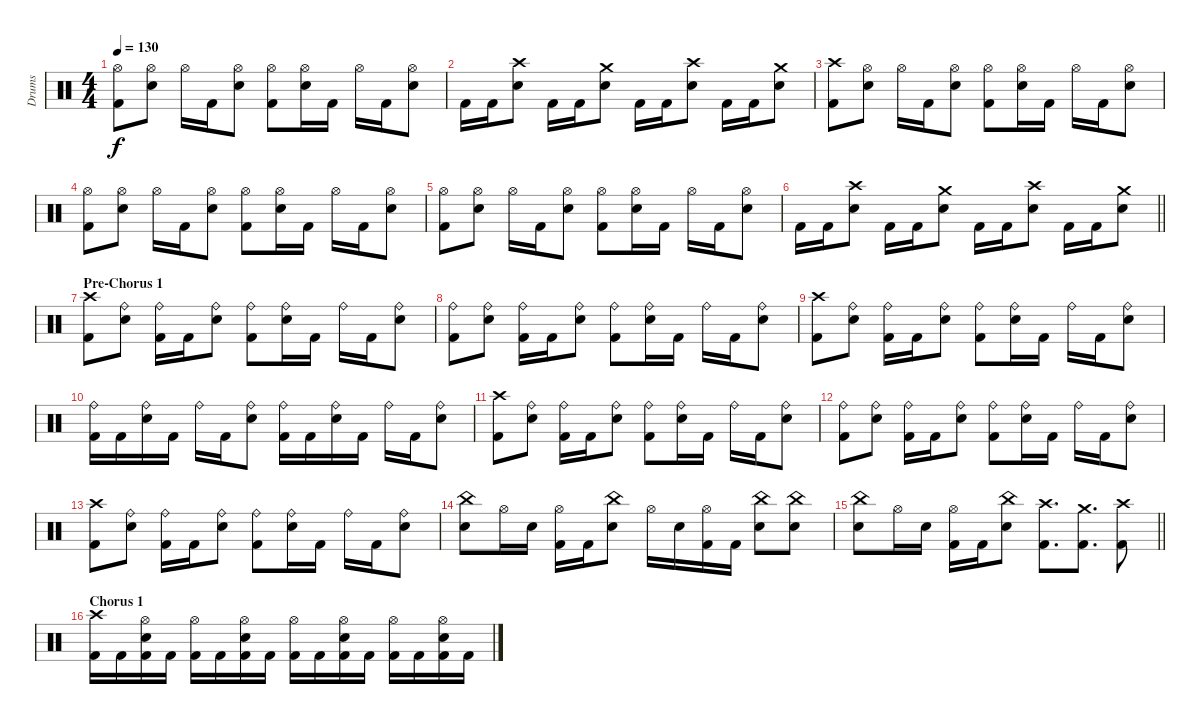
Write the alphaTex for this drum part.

\track ("Drums" "Drums") {instrument percussion}
\staff {score}
\articulation defaults
\ts (4 4)
\tempo 130
\clef neutral
\ks c
("Hi-Hat (open)" "Kick (hit) 2").8{dy f} ("Hi-Hat (open)" "Electric Snare (hit)").8 "Hi-Hat (open)".16 "Kick (hit) 2".16 ("Hi-Hat (open)" "Electric Snare (hit)").8 ("Hi-Hat (open)" "Kick (hit) 2").8 ("Hi-Hat (open)" "Electric Snare (hit)").16 "Kick (hit) 2".16 "Hi-Hat (open)".16 "Kick (hit) 2".16 ("Hi-Hat (open)" "Electric Snare (hit)").8 |
"Kick (hit) 2".16 "Kick (hit) 2".16 ("Crash high (hit)" "Electric Snare (hit)").8 "Kick (hit) 2".16 "Kick (hit) 2".16 ("Crash medium (hit)" "Electric Snare (hit)").8 "Kick (hit) 2".16 "Kick (hit) 2".16 ("Crash high (hit)" "Electric Snare (hit)").8 "Kick (hit) 2".16 "Kick (hit) 2".16 ("Crash medium (hit)" "Electric Snare (hit)").8 |
("Crash high (hit)" "Kick (hit) 2").8 ("Hi-Hat (open)" "Electric Snare (hit)").8 "Hi-Hat (open)".16 "Kick (hit) 2".16 ("Hi-Hat (open)" "Electric Snare (hit)").8 ("Hi-Hat (open)" "Kick (hit) 2").8 ("Hi-Hat (open)" "Electric Snare (hit)").16 "Kick (hit) 2".16 "Hi-Hat (open)".16 "Kick (hit) 2".16 ("Hi-Hat (open)" "Electric Snare (hit)").8 |
("Hi-Hat (open)" "Kick (hit) 2").8 ("Hi-Hat (open)" "Electric Snare (hit)").8 "Hi-Hat (open)".16 "Kick (hit) 2".16 ("Hi-Hat (open)" "Electric Snare (hit)").8 ("Hi-Hat (open)" "Kick (hit) 2").8 ("Hi-Hat (open)" "Electric Snare (hit)").16 "Kick (hit) 2".16 "Hi-Hat (open)".16 "Kick (hit) 2".16 ("Hi-Hat (open)" "Electric Snare (hit)").8 |
("Hi-Hat (open)" "Kick (hit) 2").8 ("Hi-Hat (open)" "Electric Snare (hit)").8 "Hi-Hat (open)".16 "Kick (hit) 2".16 ("Hi-Hat (open)" "Electric Snare (hit)").8 ("Hi-Hat (open)" "Kick (hit) 2").8 ("Hi-Hat (open)" "Electric Snare (hit)").16 "Kick (hit) 2".16 "Hi-Hat (open)".16 "Kick (hit) 2".16 ("Hi-Hat (open)" "Electric Snare (hit)").8 |
\barLineRight lightlight "Kick (hit) 2".16 "Kick (hit) 2".16
("Crash high (hit)" "Electric Snare (hit)").8 "Kick (hit) 2".16 "Kick (hit) 2".16 ("Crash medium (hit)" "Electric Snare (hit)").8 "Kick (hit) 2".16 "Kick (hit) 2".16 ("Crash high (hit)" "Electric Snare (hit)").8 "Kick (hit) 2".16 "Kick (hit) 2".16 ("Crash medium (hit)" "Electric Snare (hit)").8 |
\section ("" "Pre-Chorus 1")
("Crash high (hit)" "Kick (hit) 2").8 ("Ride (bell)" "Electric Snare (hit)").8 ("Ride (bell)" "Kick (hit) 2").16 "Kick (hit) 2".16 ("Ride (bell)" "Electric Snare (hit)").8 ("Ride (bell)" "Kick (hit) 2").8 ("Ride (bell)" "Electric Snare (hit)").16 "Kick (hit) 2".16 "Ride (bell)".16 "Kick (hit) 2".16 ("Ride (bell)" "Electric Snare (hit)").8 |
("Ride (bell)" "Kick (hit) 2").8 ("Ride (bell)" "Electric Snare (hit)").8 ("Ride (bell)" "Kick (hit) 2").16 "Kick (hit) 2".16 ("Ride (bell)" "Electric Snare (hit)").8 ("Ride (bell)" "Kick (hit) 2").8 ("Ride (bell)" "Electric Snare (hit)").16 "Kick (hit) 2".16 "Ride (bell)".16 "Kick (hit) 2".16 ("Ride (bell)" "Electric Snare (hit)").8 |
("Crash high (hit)" "Kick (hit) 2").8 ("Ride (bell)" "Electric Snare (hit)").8 ("Ride (bell)" "Kick (hit) 2").16 "Kick (hit) 2".16 ("Ride (bell)" "Electric Snare (hit)").8 ("Ride (bell)" "Kick (hit) 2").8 ("Ride (bell)" "Electric Snare (hit)").16 "Kick (hit) 2".16 "Ride (bell)".16 "Kick (hit) 2".16 ("Ride (bell)" "Electric Snare (hit)").8 |
("Ride (bell)" "Kick (hit) 2").16 "Kick (hit) 2".16 ("Ride (bell)" "Electric Snare (hit)").16 "Kick (hit) 2".16 "Ride (bell)".16 "Kick (hit) 2".16 ("Ride (bell)" "Electric Snare (hit)").8 ("Ride (bell)" "Kick (hit) 2").16 "Kick (hit) 2".16 ("Ride (bell)" "Electric Snare (hit)").16 "Kick (hit) 2".16 "Ride (bell)".16 "Kick (hit) 2".16 ("Ride (bell)" "Electric Snare (hit)").8 |
("Crash high (hit)" "Kick (hit) 2").8 ("Ride (bell)" "Electric Snare (hit)").8 ("Ride (bell)" "Kick (hit) 2").16 "Kick (hit) 2".16 ("Ride (bell)" "Electric Snare (hit)").8 ("Ride (bell)" "Kick (hit) 2").8 ("Ride (bell)" "Electric Snare (hit)").16 "Kick (hit) 2".16 "Ride (bell)".16 "Kick (hit) 2".16 ("Ride (bell)" "Electric Snare (hit)").8 |
("Ride (bell)" "Kick (hit) 2").8 ("Ride (bell)" "Electric Snare (hit)").8 ("Ride (bell)" "Kick (hit) 2").16 "Kick (hit) 2".16 ("Ride (bell)" "Electric Snare (hit)").8 ("Ride (bell)" "Kick (hit) 2").8 ("Ride (bell)" "Electric Snare (hit)").16 "Kick (hit) 2".16 "Ride (bell)".16 "Kick (hit) 2".16 ("Ride (bell)" "Electric Snare (hit)").8 |
("Crash high (hit)" "Kick (hit) 2").8 ("Ride (bell)" "Electric Snare (hit)").8 ("Ride (bell)" "Kick (hit) 2").16 "Kick (hit) 2".16 ("Ride (bell)" "Electric Snare (hit)").8 ("Ride (bell)" "Kick (hit) 2").8 ("Ride (bell)" "Electric Snare (hit)").16 "Kick (hit) 2".16 "Ride (bell)".16 "Kick (hit) 2".16 ("Ride (bell)" "Electric Snare (hit)").8 |
("China (hit)" "Electric Snare (hit)").8 "Hi-Hat (open)".16 "Electric Snare (hit)".16 ("Hi-Hat (open)" "Kick (hit) 2").16 "Kick (hit) 2".16 ("China (hit)" "Electric Snare (hit)").8 "Hi-Hat (open)".16 "Electric Snare (hit)".16 ("Hi-Hat (open)" "Kick (hit) 2").16 "Kick (hit) 2".16 ("China (hit)" "Electric Snare (hit)").8 ("China (hit)" "Electric Snare (hit)").8 |
\barLineRight lightlight
("China (hit)" "Electric Snare (hit)").8 "Hi-Hat (open)".16 "Electric Snare (hit)".16 ("Hi-Hat (open)" "Kick (hit) 2").16 "Kick (hit) 2".16 ("China (hit)" "Electric Snare (hit)").8 ("Crash high (hit)" "Kick (hit) 2").8{d} ("Crash medium (hit)" "Kick (hit) 2").8{d} ("Crash high (hit)" "Kick (hit) 2").8 |
\section ("" "Chorus 1")
("Crash high (hit)" "Kick (hit) 2").16 "Kick (hit) 2".16 ("Hi-Hat (open)" "Electric Snare (hit)" "Kick (hit) 2").16 "Kick (hit) 2".16 ("Hi-Hat (open)" "Kick (hit) 2").16 "Kick (hit) 2".16 ("Hi-Hat (open)" "Electric Snare (hit)" "Kick (hit) 2").16 "Kick (hit) 2".16 ("Hi-Hat (open)" "Kick (hit) 2").16 "Kick (hit) 2".16 ("Hi-Hat (open)" "Electric Snare (hit)" "Kick (hit) 2").16 "Kick (hit) 2".16 ("Hi-Hat (open)" "Kick (hit) 2").16 "Kick (hit) 2".16 ("Hi-Hat (open)" "Electric Snare (hit)" "Kick (hit) 2").16 "Kick (hit) 2".16
